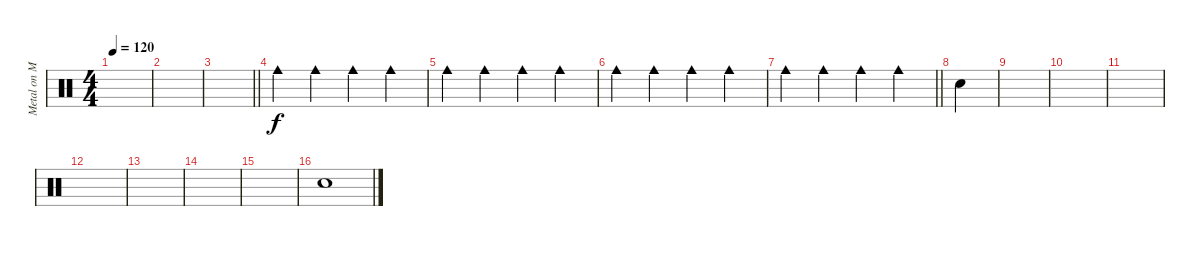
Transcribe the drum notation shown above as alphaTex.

\track ("Metal on Metal" "Metal on M") {instrument percussion}
\staff {score}
\articulation defaults
\ts (4 4)
\tempo 120
\clef neutral
\ks c
|
|
\barLineRight lightlight
|
"Cowbell medium (hit)".4 "Cowbell medium (hit)".4 "Cowbell medium (hit)".4 "Cowbell medium (hit)".4 |
"Cowbell medium (hit)".4 "Cowbell medium (hit)".4 "Cowbell medium (hit)".4 "Cowbell medium (hit)".4 |
"Cowbell medium (hit)".4 "Cowbell medium (hit)".4 "Cowbell medium (hit)".4 "Cowbell medium (hit)".4 |
\barLineRight lightlight "Cowbell medium (hit)".4 "Cowbell medium (hit)".4 "Cowbell medium (hit)".4 "Cowbell medium (hit)".4
|
"Snare (hit)".4 |
|
|
|
|
|
|
|
"Snare (hit)".1
